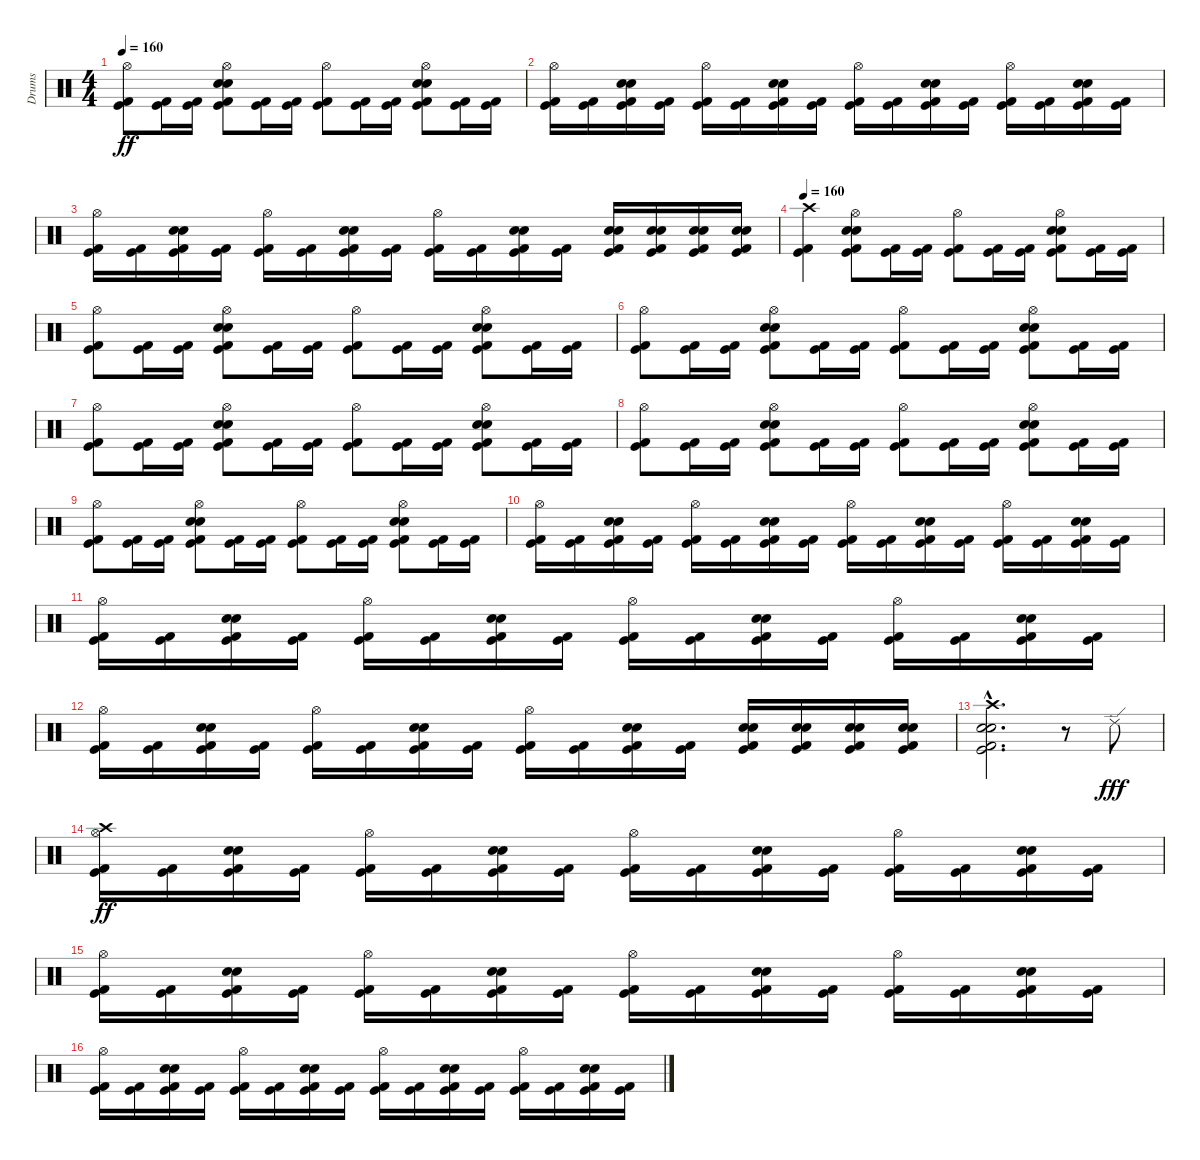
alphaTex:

\track ("Drums" "Drums") {instrument percussion}
\staff {score}
\articulation defaults
\ts (4 4)
\tempo 160
\clef neutral
\ks c
("Hi-Hat (open)" "Kick (hit) 2" "Kick (hit)").8{dy ff} ("Kick (hit) 2" "Kick (hit)").16 ("Kick (hit) 2" "Kick (hit)").16 ("Hi-Hat (open)" "Electric Snare (hit)" "Snare (hit) 2" "Kick (hit) 2" "Kick (hit)").8 ("Kick (hit) 2" "Kick (hit)").16 ("Kick (hit) 2" "Kick (hit)").16 ("Hi-Hat (open)" "Kick (hit) 2" "Kick (hit)").8 ("Kick (hit) 2" "Kick (hit)").16 ("Kick (hit) 2" "Kick (hit)").16 ("Hi-Hat (open)" "Electric Snare (hit)" "Snare (hit) 2" "Kick (hit) 2" "Kick (hit)").8 ("Kick (hit) 2" "Kick (hit)").16 ("Kick (hit) 2" "Kick (hit)").16 |
("Hi-Hat (open)" "Kick (hit) 2" "Kick (hit)").16 ("Kick (hit) 2" "Kick (hit)").16 ("Electric Snare (hit)" "Snare (hit) 2" "Kick (hit) 2" "Kick (hit)").16 ("Kick (hit) 2" "Kick (hit)").16 ("Hi-Hat (open)" "Kick (hit) 2" "Kick (hit)").16 ("Kick (hit) 2" "Kick (hit)").16 ("Electric Snare (hit)" "Snare (hit) 2" "Kick (hit) 2" "Kick (hit)").16 ("Kick (hit) 2" "Kick (hit)").16 ("Hi-Hat (open)" "Kick (hit) 2" "Kick (hit)").16 ("Kick (hit) 2" "Kick (hit)").16 ("Electric Snare (hit)" "Snare (hit) 2" "Kick (hit) 2" "Kick (hit)").16 ("Kick (hit) 2" "Kick (hit)").16 ("Hi-Hat (open)" "Kick (hit) 2" "Kick (hit)").16 ("Kick (hit) 2" "Kick (hit)").16 ("Electric Snare (hit)" "Snare (hit) 2" "Kick (hit) 2" "Kick (hit)").16 ("Kick (hit) 2" "Kick (hit)").16 |
("Hi-Hat (open)" "Kick (hit) 2" "Kick (hit)").16 ("Kick (hit) 2" "Kick (hit)").16 ("Electric Snare (hit)" "Snare (hit) 2" "Kick (hit) 2" "Kick (hit)").16 ("Kick (hit) 2" "Kick (hit)").16 ("Hi-Hat (open)" "Kick (hit) 2" "Kick (hit)").16 ("Kick (hit) 2" "Kick (hit)").16 ("Electric Snare (hit)" "Snare (hit) 2" "Kick (hit) 2" "Kick (hit)").16 ("Kick (hit) 2" "Kick (hit)").16 ("Hi-Hat (open)" "Kick (hit) 2" "Kick (hit)").16 ("Kick (hit) 2" "Kick (hit)").16 ("Electric Snare (hit)" "Snare (hit) 2" "Kick (hit) 2" "Kick (hit)").16 ("Kick (hit) 2" "Kick (hit)").16 ("Electric Snare (hit)" "Snare (hit) 2" "Kick (hit) 2" "Kick (hit)").16 ("Electric Snare (hit)" "Snare (hit) 2" "Kick (hit) 2" "Kick (hit)").16 ("Electric Snare (hit)" "Snare (hit) 2" "Kick (hit) 2" "Kick (hit)").16 ("Electric Snare (hit)" "Snare (hit) 2" "Kick (hit) 2" "Kick (hit)").16 |
\tempo 160
("Crash high (hit)" "Kick (hit) 2" "Kick (hit)").4 ("Hi-Hat (open)" "Electric Snare (hit)" "Snare (hit) 2" "Kick (hit) 2" "Kick (hit)").8 ("Kick (hit) 2" "Kick (hit)").16 ("Kick (hit) 2" "Kick (hit)").16 ("Hi-Hat (open)" "Kick (hit) 2" "Kick (hit)").8 ("Kick (hit) 2" "Kick (hit)").16 ("Kick (hit) 2" "Kick (hit)").16 ("Hi-Hat (open)" "Electric Snare (hit)" "Snare (hit) 2" "Kick (hit) 2" "Kick (hit)").8 ("Kick (hit) 2" "Kick (hit)").16 ("Kick (hit) 2" "Kick (hit)").16 |
("Hi-Hat (open)" "Kick (hit) 2" "Kick (hit)").8 ("Kick (hit) 2" "Kick (hit)").16 ("Kick (hit) 2" "Kick (hit)").16 ("Hi-Hat (open)" "Electric Snare (hit)" "Snare (hit) 2" "Kick (hit) 2" "Kick (hit)").8 ("Kick (hit) 2" "Kick (hit)").16 ("Kick (hit) 2" "Kick (hit)").16 ("Hi-Hat (open)" "Kick (hit) 2" "Kick (hit)").8 ("Kick (hit) 2" "Kick (hit)").16 ("Kick (hit) 2" "Kick (hit)").16 ("Hi-Hat (open)" "Electric Snare (hit)" "Snare (hit) 2" "Kick (hit) 2" "Kick (hit)").8 ("Kick (hit) 2" "Kick (hit)").16 ("Kick (hit) 2" "Kick (hit)").16 |
("Hi-Hat (open)" "Kick (hit) 2" "Kick (hit)").8 ("Kick (hit) 2" "Kick (hit)").16 ("Kick (hit) 2" "Kick (hit)").16 ("Hi-Hat (open)" "Electric Snare (hit)" "Snare (hit) 2" "Kick (hit) 2" "Kick (hit)").8 ("Kick (hit) 2" "Kick (hit)").16 ("Kick (hit) 2" "Kick (hit)").16 ("Hi-Hat (open)" "Kick (hit) 2" "Kick (hit)").8 ("Kick (hit) 2" "Kick (hit)").16 ("Kick (hit) 2" "Kick (hit)").16 ("Hi-Hat (open)" "Electric Snare (hit)" "Snare (hit) 2" "Kick (hit) 2" "Kick (hit)").8 ("Kick (hit) 2" "Kick (hit)").16 ("Kick (hit) 2" "Kick (hit)").16 |
("Hi-Hat (open)" "Kick (hit) 2" "Kick (hit)").8 ("Kick (hit) 2" "Kick (hit)").16 ("Kick (hit) 2" "Kick (hit)").16 ("Hi-Hat (open)" "Electric Snare (hit)" "Snare (hit) 2" "Kick (hit) 2" "Kick (hit)").8 ("Kick (hit) 2" "Kick (hit)").16 ("Kick (hit) 2" "Kick (hit)").16 ("Hi-Hat (open)" "Kick (hit) 2" "Kick (hit)").8 ("Kick (hit) 2" "Kick (hit)").16 ("Kick (hit) 2" "Kick (hit)").16 ("Hi-Hat (open)" "Electric Snare (hit)" "Snare (hit) 2" "Kick (hit) 2" "Kick (hit)").8 ("Kick (hit) 2" "Kick (hit)").16 ("Kick (hit) 2" "Kick (hit)").16 |
("Hi-Hat (open)" "Kick (hit) 2" "Kick (hit)").8 ("Kick (hit) 2" "Kick (hit)").16 ("Kick (hit) 2" "Kick (hit)").16 ("Hi-Hat (open)" "Electric Snare (hit)" "Snare (hit) 2" "Kick (hit) 2" "Kick (hit)").8 ("Kick (hit) 2" "Kick (hit)").16 ("Kick (hit) 2" "Kick (hit)").16 ("Hi-Hat (open)" "Kick (hit) 2" "Kick (hit)").8 ("Kick (hit) 2" "Kick (hit)").16 ("Kick (hit) 2" "Kick (hit)").16 ("Hi-Hat (open)" "Electric Snare (hit)" "Snare (hit) 2" "Kick (hit) 2" "Kick (hit)").8 ("Kick (hit) 2" "Kick (hit)").16 ("Kick (hit) 2" "Kick (hit)").16 |
("Hi-Hat (open)" "Kick (hit) 2" "Kick (hit)").8 ("Kick (hit) 2" "Kick (hit)").16 ("Kick (hit) 2" "Kick (hit)").16 ("Hi-Hat (open)" "Electric Snare (hit)" "Snare (hit) 2" "Kick (hit) 2" "Kick (hit)").8 ("Kick (hit) 2" "Kick (hit)").16 ("Kick (hit) 2" "Kick (hit)").16 ("Hi-Hat (open)" "Kick (hit) 2" "Kick (hit)").8 ("Kick (hit) 2" "Kick (hit)").16 ("Kick (hit) 2" "Kick (hit)").16 ("Hi-Hat (open)" "Electric Snare (hit)" "Snare (hit) 2" "Kick (hit) 2" "Kick (hit)").8 ("Kick (hit) 2" "Kick (hit)").16 ("Kick (hit) 2" "Kick (hit)").16 |
("Hi-Hat (open)" "Kick (hit) 2" "Kick (hit)").16 ("Kick (hit) 2" "Kick (hit)").16 ("Electric Snare (hit)" "Snare (hit) 2" "Kick (hit) 2" "Kick (hit)").16 ("Kick (hit) 2" "Kick (hit)").16 ("Hi-Hat (open)" "Kick (hit) 2" "Kick (hit)").16 ("Kick (hit) 2" "Kick (hit)").16 ("Electric Snare (hit)" "Snare (hit) 2" "Kick (hit) 2" "Kick (hit)").16 ("Kick (hit) 2" "Kick (hit)").16 ("Hi-Hat (open)" "Kick (hit) 2" "Kick (hit)").16 ("Kick (hit) 2" "Kick (hit)").16 ("Electric Snare (hit)" "Snare (hit) 2" "Kick (hit) 2" "Kick (hit)").16 ("Kick (hit) 2" "Kick (hit)").16 ("Hi-Hat (open)" "Kick (hit) 2" "Kick (hit)").16 ("Kick (hit) 2" "Kick (hit)").16 ("Electric Snare (hit)" "Snare (hit) 2" "Kick (hit) 2" "Kick (hit)").16 ("Kick (hit) 2" "Kick (hit)").16 |
("Hi-Hat (open)" "Kick (hit) 2" "Kick (hit)").16 ("Kick (hit) 2" "Kick (hit)").16 ("Electric Snare (hit)" "Snare (hit) 2" "Kick (hit) 2" "Kick (hit)").16 ("Kick (hit) 2" "Kick (hit)").16 ("Hi-Hat (open)" "Kick (hit) 2" "Kick (hit)").16 ("Kick (hit) 2" "Kick (hit)").16 ("Electric Snare (hit)" "Snare (hit) 2" "Kick (hit) 2" "Kick (hit)").16 ("Kick (hit) 2" "Kick (hit)").16 ("Hi-Hat (open)" "Kick (hit) 2" "Kick (hit)").16 ("Kick (hit) 2" "Kick (hit)").16 ("Electric Snare (hit)" "Snare (hit) 2" "Kick (hit) 2" "Kick (hit)").16 ("Kick (hit) 2" "Kick (hit)").16 ("Hi-Hat (open)" "Kick (hit) 2" "Kick (hit)").16 ("Kick (hit) 2" "Kick (hit)").16 ("Electric Snare (hit)" "Snare (hit) 2" "Kick (hit) 2" "Kick (hit)").16 ("Kick (hit) 2" "Kick (hit)").16 |
("Hi-Hat (open)" "Kick (hit) 2" "Kick (hit)").16 ("Kick (hit) 2" "Kick (hit)").16 ("Electric Snare (hit)" "Snare (hit) 2" "Kick (hit) 2" "Kick (hit)").16 ("Kick (hit) 2" "Kick (hit)").16 ("Hi-Hat (open)" "Kick (hit) 2" "Kick (hit)").16 ("Kick (hit) 2" "Kick (hit)").16 ("Electric Snare (hit)" "Snare (hit) 2" "Kick (hit) 2" "Kick (hit)").16 ("Kick (hit) 2" "Kick (hit)").16 ("Hi-Hat (open)" "Kick (hit) 2" "Kick (hit)").16 ("Kick (hit) 2" "Kick (hit)").16 ("Electric Snare (hit)" "Snare (hit) 2" "Kick (hit) 2" "Kick (hit)").16 ("Kick (hit) 2" "Kick (hit)").16 ("Electric Snare (hit)" "Snare (hit) 2" "Kick (hit) 2" "Kick (hit)").16 ("Electric Snare (hit)" "Snare (hit) 2" "Kick (hit) 2" "Kick (hit)").16 ("Electric Snare (hit)" "Snare (hit) 2" "Kick (hit) 2" "Kick (hit)").16 ("Electric Snare (hit)" "Snare (hit) 2" "Kick (hit) 2" "Kick (hit)").16 |
("Crash high (hit)"{hac} "Snare (hit) 2"{hac} "Electric Snare (hit)"{hac} "Kick (hit) 2"{hac} "Kick (hit)"{hac}).2{d} r.8 "Ride (edge) 2".8{dy fff} |
("Hi-Hat (open)" "Crash high (hit)" "Kick (hit) 2" "Kick (hit)").16{dy ff} ("Kick (hit) 2" "Kick (hit)").16 ("Electric Snare (hit)" "Snare (hit) 2" "Kick (hit) 2" "Kick (hit)").16 ("Kick (hit) 2" "Kick (hit)").16 ("Hi-Hat (open)" "Kick (hit) 2" "Kick (hit)").16 ("Kick (hit) 2" "Kick (hit)").16 ("Electric Snare (hit)" "Snare (hit) 2" "Kick (hit) 2" "Kick (hit)").16 ("Kick (hit) 2" "Kick (hit)").16 ("Hi-Hat (open)" "Kick (hit) 2" "Kick (hit)").16 ("Kick (hit) 2" "Kick (hit)").16 ("Electric Snare (hit)" "Snare (hit) 2" "Kick (hit) 2" "Kick (hit)").16 ("Kick (hit) 2" "Kick (hit)").16 ("Hi-Hat (open)" "Kick (hit) 2" "Kick (hit)").16 ("Kick (hit) 2" "Kick (hit)").16 ("Electric Snare (hit)" "Snare (hit) 2" "Kick (hit) 2" "Kick (hit)").16 ("Kick (hit) 2" "Kick (hit)").16 |
("Hi-Hat (open)" "Kick (hit) 2" "Kick (hit)").16 ("Kick (hit) 2" "Kick (hit)").16 ("Electric Snare (hit)" "Snare (hit) 2" "Kick (hit) 2" "Kick (hit)").16 ("Kick (hit) 2" "Kick (hit)").16 ("Hi-Hat (open)" "Kick (hit) 2" "Kick (hit)").16 ("Kick (hit) 2" "Kick (hit)").16 ("Electric Snare (hit)" "Snare (hit) 2" "Kick (hit) 2" "Kick (hit)").16 ("Kick (hit) 2" "Kick (hit)").16 ("Hi-Hat (open)" "Kick (hit) 2" "Kick (hit)").16 ("Kick (hit) 2" "Kick (hit)").16 ("Electric Snare (hit)" "Snare (hit) 2" "Kick (hit) 2" "Kick (hit)").16 ("Kick (hit) 2" "Kick (hit)").16 ("Hi-Hat (open)" "Kick (hit) 2" "Kick (hit)").16 ("Kick (hit) 2" "Kick (hit)").16 ("Electric Snare (hit)" "Snare (hit) 2" "Kick (hit) 2" "Kick (hit)").16 ("Kick (hit) 2" "Kick (hit)").16 |
("Hi-Hat (open)" "Kick (hit) 2" "Kick (hit)").16 ("Kick (hit) 2" "Kick (hit)").16 ("Electric Snare (hit)" "Snare (hit) 2" "Kick (hit) 2" "Kick (hit)").16 ("Kick (hit) 2" "Kick (hit)").16 ("Hi-Hat (open)" "Kick (hit) 2" "Kick (hit)").16 ("Kick (hit) 2" "Kick (hit)").16 ("Electric Snare (hit)" "Snare (hit) 2" "Kick (hit) 2" "Kick (hit)").16 ("Kick (hit) 2" "Kick (hit)").16 ("Hi-Hat (open)" "Kick (hit) 2" "Kick (hit)").16 ("Kick (hit) 2" "Kick (hit)").16 ("Electric Snare (hit)" "Snare (hit) 2" "Kick (hit) 2" "Kick (hit)").16 ("Kick (hit) 2" "Kick (hit)").16 ("Hi-Hat (open)" "Kick (hit) 2" "Kick (hit)").16 ("Kick (hit) 2" "Kick (hit)").16 ("Electric Snare (hit)" "Snare (hit) 2" "Kick (hit) 2" "Kick (hit)").16 ("Kick (hit) 2" "Kick (hit)").16
